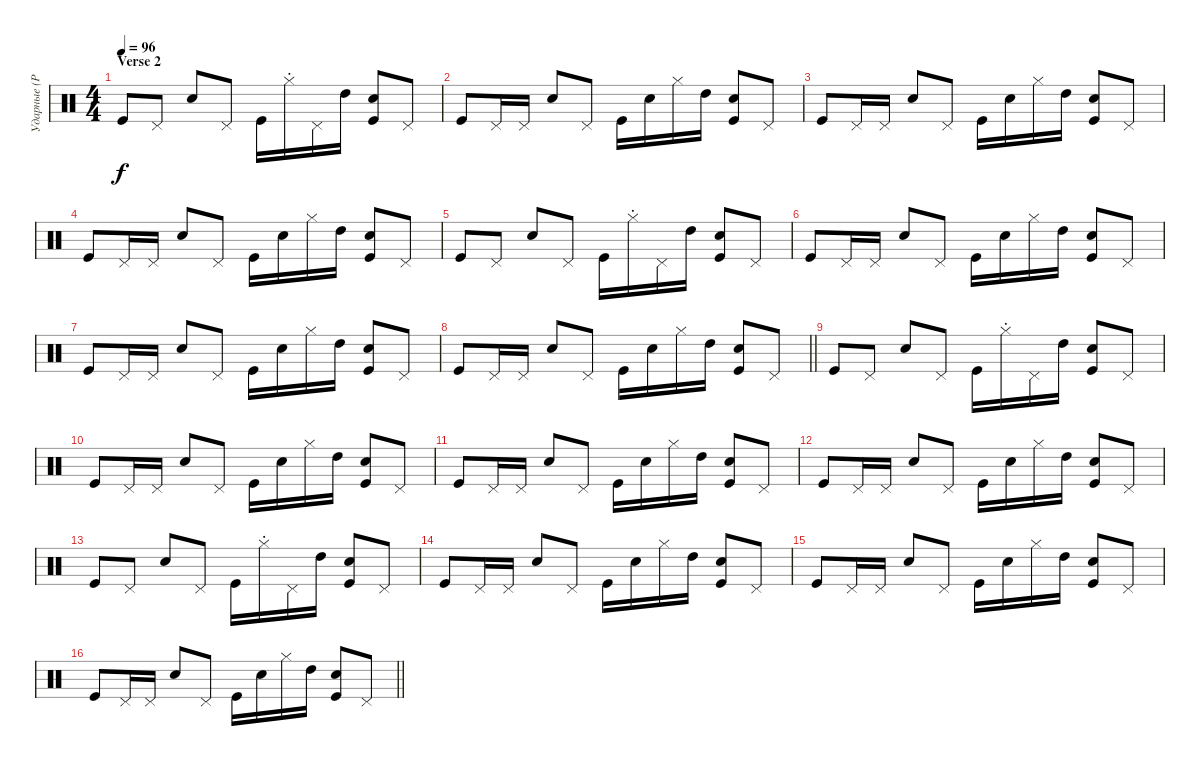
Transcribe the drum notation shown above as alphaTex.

\track ("Ударные (Phil Collins)" "Ударные (P") {instrument percussion}
\staff {score}
\articulation defaults
\ts (4 4)
\section ("" "Verse 2")
\tempo 96
\clef neutral
\ks c "Kick (hit)".8{dy f} "Pedal Hi-Hat (hit)".8 "Electric Snare (hit)".8 "Pedal Hi-Hat (hit)".8 "Kick (hit)".16 "Hi-Hat (closed)"{st}.16 "Pedal Hi-Hat (hit)".16 "High Tom (hit)".16
("Electric Snare (hit)" "Kick (hit)").8 "Pedal Hi-Hat (hit)".8 |
"Kick (hit)".8 "Pedal Hi-Hat (hit)".16 "Pedal Hi-Hat (hit)".16 "Electric Snare (hit)".8 "Pedal Hi-Hat (hit)".8 "Kick (hit)".16 "Electric Snare (hit)".16 "Hi-Hat (closed)".16 "High Tom (hit)".16 ("Electric Snare (hit)" "Kick (hit)").8 "Pedal Hi-Hat (hit)".8 |
"Kick (hit)".8 "Pedal Hi-Hat (hit)".16 "Pedal Hi-Hat (hit)".16 "Electric Snare (hit)".8 "Pedal Hi-Hat (hit)".8 "Kick (hit)".16 "Electric Snare (hit)".16 "Hi-Hat (closed)".16 "High Tom (hit)".16 ("Electric Snare (hit)" "Kick (hit)").8 "Pedal Hi-Hat (hit)".8 |
"Kick (hit)".8 "Pedal Hi-Hat (hit)".16 "Pedal Hi-Hat (hit)".16 "Electric Snare (hit)".8 "Pedal Hi-Hat (hit)".8 "Kick (hit)".16 "Electric Snare (hit)".16 "Hi-Hat (closed)".16 "High Tom (hit)".16 ("Electric Snare (hit)" "Kick (hit)").8 "Pedal Hi-Hat (hit)".8 |
"Kick (hit)".8 "Pedal Hi-Hat (hit)".8 "Electric Snare (hit)".8 "Pedal Hi-Hat (hit)".8 "Kick (hit)".16 "Hi-Hat (closed)"{st}.16 "Pedal Hi-Hat (hit)".16 "High Tom (hit)".16 ("Electric Snare (hit)" "Kick (hit)").8 "Pedal Hi-Hat (hit)".8 |
"Kick (hit)".8 "Pedal Hi-Hat (hit)".16 "Pedal Hi-Hat (hit)".16 "Electric Snare (hit)".8 "Pedal Hi-Hat (hit)".8 "Kick (hit)".16 "Electric Snare (hit)".16 "Hi-Hat (closed)".16 "High Tom (hit)".16 ("Electric Snare (hit)" "Kick (hit)").8 "Pedal Hi-Hat (hit)".8 |
"Kick (hit)".8 "Pedal Hi-Hat (hit)".16 "Pedal Hi-Hat (hit)".16 "Electric Snare (hit)".8 "Pedal Hi-Hat (hit)".8 "Kick (hit)".16 "Electric Snare (hit)".16 "Hi-Hat (closed)".16 "High Tom (hit)".16 ("Electric Snare (hit)" "Kick (hit)").8 "Pedal Hi-Hat (hit)".8 |
\barLineRight lightlight "Kick (hit)".8 "Pedal Hi-Hat (hit)".16 "Pedal Hi-Hat (hit)".16 "Electric Snare (hit)".8 "Pedal Hi-Hat (hit)".8 "Kick (hit)".16 "Electric Snare (hit)".16 "Hi-Hat (closed)".16 "High Tom (hit)".16
("Electric Snare (hit)" "Kick (hit)").8 "Pedal Hi-Hat (hit)".8 |
"Kick (hit)".8 "Pedal Hi-Hat (hit)".8 "Electric Snare (hit)".8 "Pedal Hi-Hat (hit)".8 "Kick (hit)".16 "Hi-Hat (closed)"{st}.16 "Pedal Hi-Hat (hit)".16 "High Tom (hit)".16 ("Electric Snare (hit)" "Kick (hit)").8 "Pedal Hi-Hat (hit)".8 |
"Kick (hit)".8 "Pedal Hi-Hat (hit)".16 "Pedal Hi-Hat (hit)".16 "Electric Snare (hit)".8 "Pedal Hi-Hat (hit)".8 "Kick (hit)".16 "Electric Snare (hit)".16 "Hi-Hat (closed)".16 "High Tom (hit)".16 ("Electric Snare (hit)" "Kick (hit)").8 "Pedal Hi-Hat (hit)".8 |
"Kick (hit)".8 "Pedal Hi-Hat (hit)".16 "Pedal Hi-Hat (hit)".16 "Electric Snare (hit)".8 "Pedal Hi-Hat (hit)".8 "Kick (hit)".16 "Electric Snare (hit)".16 "Hi-Hat (closed)".16 "High Tom (hit)".16 ("Electric Snare (hit)" "Kick (hit)").8 "Pedal Hi-Hat (hit)".8 |
"Kick (hit)".8 "Pedal Hi-Hat (hit)".16 "Pedal Hi-Hat (hit)".16 "Electric Snare (hit)".8 "Pedal Hi-Hat (hit)".8 "Kick (hit)".16 "Electric Snare (hit)".16 "Hi-Hat (closed)".16 "High Tom (hit)".16 ("Electric Snare (hit)" "Kick (hit)").8 "Pedal Hi-Hat (hit)".8 |
"Kick (hit)".8 "Pedal Hi-Hat (hit)".8 "Electric Snare (hit)".8 "Pedal Hi-Hat (hit)".8 "Kick (hit)".16 "Hi-Hat (closed)"{st}.16 "Pedal Hi-Hat (hit)".16 "High Tom (hit)".16 ("Electric Snare (hit)" "Kick (hit)").8 "Pedal Hi-Hat (hit)".8 |
"Kick (hit)".8 "Pedal Hi-Hat (hit)".16 "Pedal Hi-Hat (hit)".16 "Electric Snare (hit)".8 "Pedal Hi-Hat (hit)".8 "Kick (hit)".16 "Electric Snare (hit)".16 "Hi-Hat (closed)".16 "High Tom (hit)".16 ("Electric Snare (hit)" "Kick (hit)").8 "Pedal Hi-Hat (hit)".8 |
"Kick (hit)".8 "Pedal Hi-Hat (hit)".16 "Pedal Hi-Hat (hit)".16 "Electric Snare (hit)".8 "Pedal Hi-Hat (hit)".8 "Kick (hit)".16 "Electric Snare (hit)".16 "Hi-Hat (closed)".16 "High Tom (hit)".16 ("Electric Snare (hit)" "Kick (hit)").8 "Pedal Hi-Hat (hit)".8 |
\barLineRight lightlight "Kick (hit)".8 "Pedal Hi-Hat (hit)".16 "Pedal Hi-Hat (hit)".16 "Electric Snare (hit)".8 "Pedal Hi-Hat (hit)".8 "Kick (hit)".16 "Electric Snare (hit)".16 "Hi-Hat (closed)".16 "High Tom (hit)".16
("Electric Snare (hit)" "Kick (hit)").8 "Pedal Hi-Hat (hit)".8
